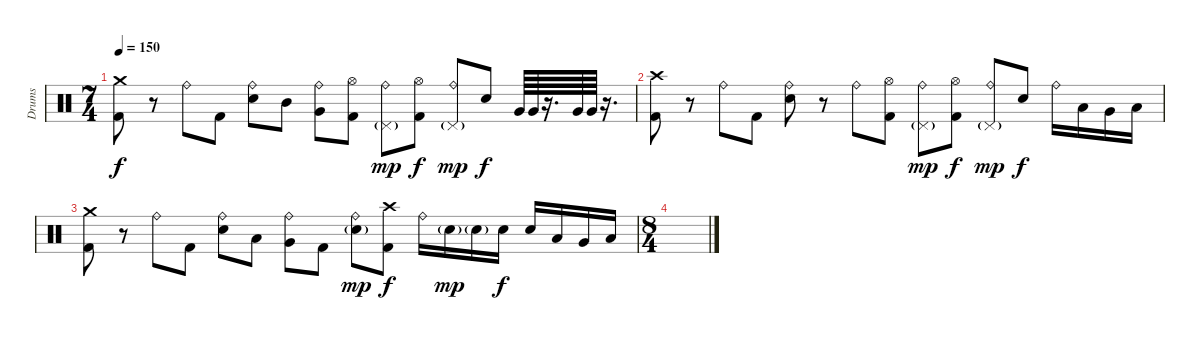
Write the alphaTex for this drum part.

\track ("Drums" "Drums") {instrument percussion}
\staff {score}
\articulation defaults
\ts (7 4)
\tempo 150
\clef neutral
\ks c
("Crash medium (hit)" "Kick (hit) 2").8{dy f} r.8 "Ride (bell)".8 "Kick (hit) 2".8 ("Ride (bell)" "Electric Snare (hit)").8 "Mid Tom (hit)".8 ("Ride (bell)" "Very Low Tom (hit)").8 ("Hi-Hat (open)" "Kick (hit) 2").8 ("Ride (bell)" "Pedal Hi-Hat (hit)"{g}).8{dy mp} ("Hi-Hat (open)" "Kick (hit) 2").8{dy f} ("Ride (bell)" "Pedal Hi-Hat (hit)"{g}).8{dy mp} "Electric Snare (hit)".8{dy f} "Very Low Tom (hit)".64 "Very Low Tom (hit)".64 r.16{d} "Very Low Tom (hit)".64 "Very Low Tom (hit)".64 r.16{d} |
("Crash high (hit)" "Kick (hit) 2").8 r.8 "Ride (bell)".8 "Kick (hit) 2".8 ("Ride (bell)" "Electric Snare (hit)").8 r.8 "Ride (bell)".8 ("Hi-Hat (open)" "Kick (hit) 2").8 ("Ride (bell)" "Pedal Hi-Hat (hit)"{g}).8{dy mp} ("Hi-Hat (open)" "Kick (hit) 2").8{dy f} ("Ride (bell)" "Pedal Hi-Hat (hit)"{g}).8{dy mp} "Electric Snare (hit)".8{dy f} "Ride (bell)".16 "Low Tom (hit)".16 "Very Low Tom (hit)".16 "Low Floor Tom (hit)".16 |
("Crash medium (hit)" "Kick (hit) 2").8 r.8 "Ride (bell)".8 "Kick (hit) 2".8 ("Ride (bell)" "Electric Snare (hit)").8 "Low Tom (hit)".8 ("Ride (bell)" "Very Low Tom (hit)").8 "Kick (hit) 2".8 ("Ride (bell)" "Electric Snare (hit)"{g}).8{dy mp} ("Crash high (hit)" "Kick (hit) 2").8{dy f} "Ride (bell)".16 "Electric Snare (hit)"{g}.16{dy mp} "Electric Snare (hit)"{g}.16 "Electric Snare (hit)".16{dy f} "Electric Snare (hit)".16 "Low Tom (hit)".16 "Very Low Tom (hit)".16 "Low Floor Tom (hit)".16 |
\ts (8 4)
